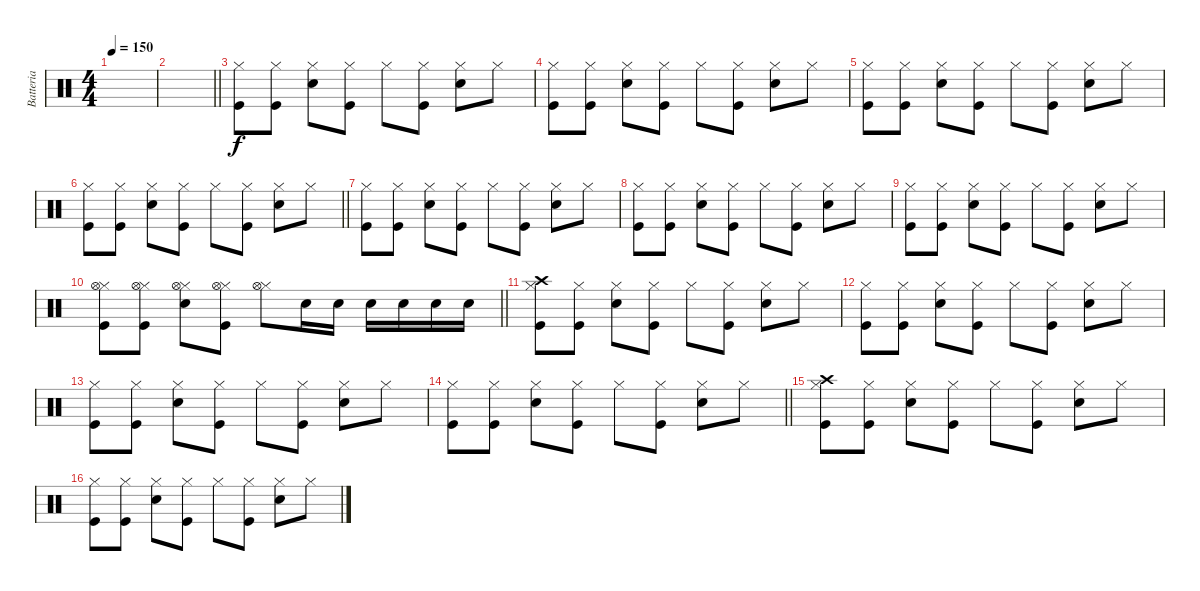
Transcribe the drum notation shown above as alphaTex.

\track ("Batteria" "Batteria") {instrument percussion}
\staff {score}
\articulation defaults
\ts (4 4)
\tempo 150
\clef neutral
\ks c
|
\barLineRight lightlight
|
("Hi-Hat (closed)" "Kick (hit)").8 ("Hi-Hat (closed)" "Kick (hit)").8 ("Hi-Hat (closed)" "Snare (hit) 2").8 ("Hi-Hat (closed)" "Kick (hit)").8 "Hi-Hat (closed)".8 ("Hi-Hat (closed)" "Kick (hit)").8 ("Hi-Hat (closed)" "Snare (hit) 2").8 "Hi-Hat (closed)".8 |
("Hi-Hat (closed)" "Kick (hit)").8 ("Hi-Hat (closed)" "Kick (hit)").8 ("Hi-Hat (closed)" "Snare (hit) 2").8 ("Hi-Hat (closed)" "Kick (hit)").8 "Hi-Hat (closed)".8 ("Hi-Hat (closed)" "Kick (hit)").8 ("Hi-Hat (closed)" "Snare (hit) 2").8 "Hi-Hat (closed)".8 |
("Hi-Hat (closed)" "Kick (hit)").8 ("Hi-Hat (closed)" "Kick (hit)").8 ("Hi-Hat (closed)" "Snare (hit) 2").8 ("Hi-Hat (closed)" "Kick (hit)").8 "Hi-Hat (closed)".8 ("Hi-Hat (closed)" "Kick (hit)").8 ("Hi-Hat (closed)" "Snare (hit) 2").8 "Hi-Hat (closed)".8 |
\barLineRight lightlight
("Hi-Hat (closed)" "Kick (hit)").8 ("Hi-Hat (closed)" "Kick (hit)").8 ("Hi-Hat (closed)" "Snare (hit) 2").8 ("Hi-Hat (closed)" "Kick (hit)").8 "Hi-Hat (closed)".8 ("Hi-Hat (closed)" "Kick (hit)").8 ("Hi-Hat (closed)" "Snare (hit) 2").8 "Hi-Hat (closed)".8 |
("Hi-Hat (closed)" "Kick (hit)").8 ("Hi-Hat (closed)" "Kick (hit)").8 ("Hi-Hat (closed)" "Snare (hit) 2").8 ("Hi-Hat (closed)" "Kick (hit)").8 "Hi-Hat (closed)".8 ("Hi-Hat (closed)" "Kick (hit)").8 ("Hi-Hat (closed)" "Snare (hit) 2").8 "Hi-Hat (closed)".8 |
("Hi-Hat (closed)" "Kick (hit)").8 ("Hi-Hat (closed)" "Kick (hit)").8 ("Hi-Hat (closed)" "Snare (hit) 2").8 ("Hi-Hat (closed)" "Kick (hit)").8 "Hi-Hat (closed)".8 ("Hi-Hat (closed)" "Kick (hit)").8 ("Hi-Hat (closed)" "Snare (hit) 2").8 "Hi-Hat (closed)".8 |
("Hi-Hat (closed)" "Kick (hit)").8 ("Hi-Hat (closed)" "Kick (hit)").8 ("Hi-Hat (closed)" "Snare (hit) 2").8 ("Hi-Hat (closed)" "Kick (hit)").8 "Hi-Hat (closed)".8 ("Hi-Hat (closed)" "Kick (hit)").8 ("Hi-Hat (closed)" "Snare (hit) 2").8 "Hi-Hat (closed)".8 |
\barLineRight lightlight
("Hi-Hat (closed)" "Hi-Hat (open)" "Kick (hit)").8 ("Hi-Hat (closed)" "Hi-Hat (open)" "Kick (hit)").8 ("Hi-Hat (closed)" "Snare (hit) 2" "Hi-Hat (open)").8 ("Hi-Hat (closed)" "Hi-Hat (open)" "Kick (hit)").8 ("Hi-Hat (closed)" "Hi-Hat (open)").8 "Snare (hit) 2".16 "Snare (hit) 2".16 "Snare (hit) 2".16 "Snare (hit) 2".16 "Snare (hit) 2".16 "Snare (hit) 2".16 |
("Hi-Hat (closed)" "Crash high (hit)" "Kick (hit)").8 ("Hi-Hat (closed)" "Kick (hit)").8 ("Hi-Hat (closed)" "Snare (hit) 2").8 ("Hi-Hat (closed)" "Kick (hit)").8 "Hi-Hat (closed)".8 ("Hi-Hat (closed)" "Kick (hit)").8 ("Hi-Hat (closed)" "Snare (hit) 2").8 "Hi-Hat (closed)".8 |
("Hi-Hat (closed)" "Kick (hit)").8 ("Hi-Hat (closed)" "Kick (hit)").8 ("Hi-Hat (closed)" "Snare (hit) 2").8 ("Hi-Hat (closed)" "Kick (hit)").8 "Hi-Hat (closed)".8 ("Hi-Hat (closed)" "Kick (hit)").8 ("Hi-Hat (closed)" "Snare (hit) 2").8 "Hi-Hat (closed)".8 |
("Hi-Hat (closed)" "Kick (hit)").8 ("Hi-Hat (closed)" "Kick (hit)").8 ("Hi-Hat (closed)" "Snare (hit) 2").8 ("Hi-Hat (closed)" "Kick (hit)").8 "Hi-Hat (closed)".8 ("Hi-Hat (closed)" "Kick (hit)").8 ("Hi-Hat (closed)" "Snare (hit) 2").8 "Hi-Hat (closed)".8 |
\barLineRight lightlight
("Hi-Hat (closed)" "Kick (hit)").8 ("Hi-Hat (closed)" "Kick (hit)").8 ("Hi-Hat (closed)" "Snare (hit) 2").8 ("Hi-Hat (closed)" "Kick (hit)").8 "Hi-Hat (closed)".8 ("Hi-Hat (closed)" "Kick (hit)").8 ("Hi-Hat (closed)" "Snare (hit) 2").8 "Hi-Hat (closed)".8 |
("Hi-Hat (closed)" "Crash high (hit)" "Kick (hit)").8 ("Hi-Hat (closed)" "Kick (hit)").8 ("Hi-Hat (closed)" "Snare (hit) 2").8 ("Hi-Hat (closed)" "Kick (hit)").8 "Hi-Hat (closed)".8 ("Hi-Hat (closed)" "Kick (hit)").8 ("Hi-Hat (closed)" "Snare (hit) 2").8 "Hi-Hat (closed)".8 |
("Hi-Hat (closed)" "Kick (hit)").8 ("Hi-Hat (closed)" "Kick (hit)").8 ("Hi-Hat (closed)" "Snare (hit) 2").8 ("Hi-Hat (closed)" "Kick (hit)").8 "Hi-Hat (closed)".8 ("Hi-Hat (closed)" "Kick (hit)").8 ("Hi-Hat (closed)" "Snare (hit) 2").8 "Hi-Hat (closed)".8
